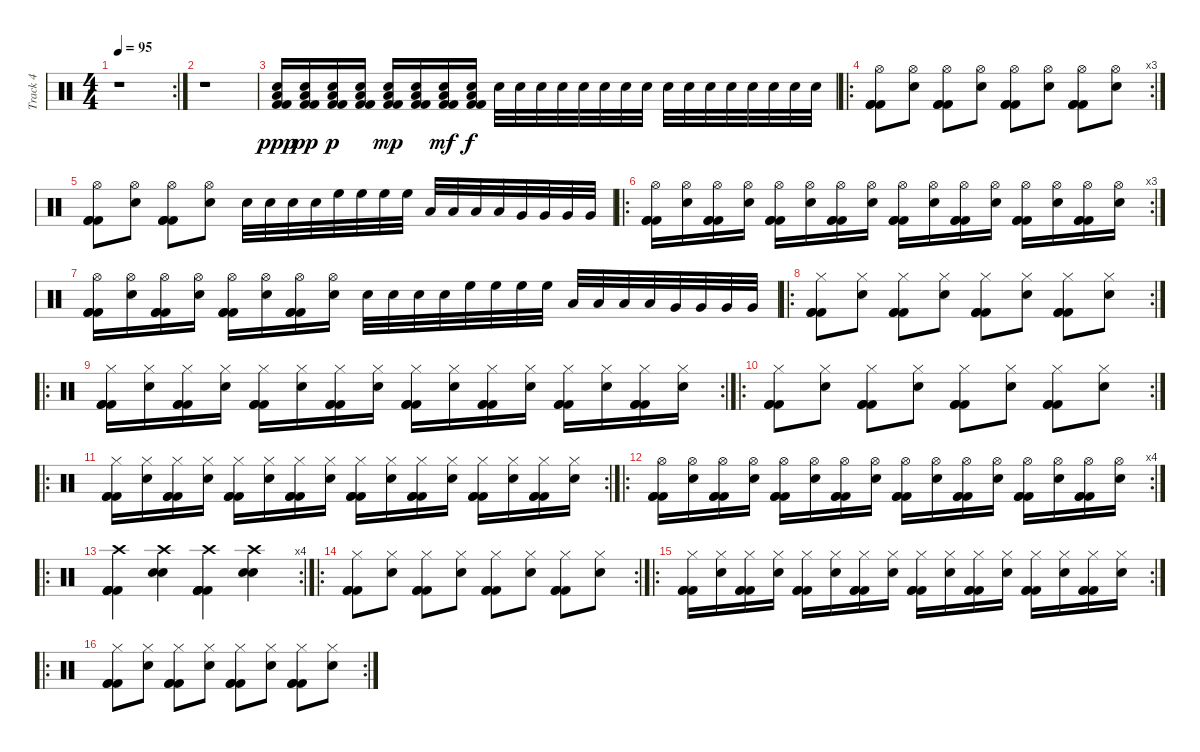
\track ("Track 4" "Track 4") {instrument percussion}
\staff {score}
\articulation defaults
\rc 2
\ts (4 4)
\tempo 95
\clef neutral
\ks c
r.1{dy ppp} |
r.1 |
("Low Floor Tom (hit)" "Snare (hit) 2" "Kick (hit) 2" "Kick (hit) 2").16 ("Low Floor Tom (hit)" "Snare (hit) 2" "Kick (hit) 2" "Kick (hit) 2").16{dy pp} ("Low Floor Tom (hit)" "Snare (hit) 2" "Kick (hit) 2" "Kick (hit) 2").16{dy p} ("Low Floor Tom (hit)" "Snare (hit) 2" "Kick (hit) 2" "Kick (hit) 2").16 ("Low Floor Tom (hit)" "Snare (hit) 2" "Kick (hit) 2" "Kick (hit) 2").16{dy mp} ("Low Floor Tom (hit)" "Snare (hit) 2" "Kick (hit) 2" "Kick (hit) 2").16 ("Low Floor Tom (hit)" "Snare (hit) 2" "Kick (hit) 2" "Kick (hit) 2").16{dy mf} ("Low Floor Tom (hit)" "Snare (hit) 2" "Kick (hit) 2" "Kick (hit) 2").16{dy f} "Snare (hit) 2".32 "Snare (hit) 2".32 "Snare (hit) 2".32 "Snare (hit) 2".32 "Snare (hit) 2".32 "Snare (hit) 2".32 "Snare (hit) 2".32 "Snare (hit) 2".32 "Snare (hit) 2".32 "Snare (hit) 2".32 "Snare (hit) 2".32 "Snare (hit) 2".32 "Snare (hit) 2".32 "Snare (hit) 2".32 "Snare (hit) 2".32 "Snare (hit) 2".32 |
\ro
\rc 3
("Hi-Hat (open)" "Kick (hit) 2" "Kick (hit) 2" "Kick (hit) 2").8 ("Hi-Hat (open)" "Snare (hit) 2").8 ("Hi-Hat (open)" "Kick (hit) 2" "Kick (hit) 2" "Kick (hit) 2").8 ("Hi-Hat (open)" "Snare (hit) 2").8 ("Hi-Hat (open)" "Kick (hit) 2" "Kick (hit) 2" "Kick (hit) 2").8 ("Hi-Hat (open)" "Snare (hit) 2").8 ("Hi-Hat (open)" "Kick (hit) 2" "Kick (hit) 2" "Kick (hit) 2").8 ("Hi-Hat (open)" "Snare (hit) 2").8 |
("Hi-Hat (open)" "Kick (hit) 2" "Kick (hit) 2" "Kick (hit) 2").8 ("Hi-Hat (open)" "Snare (hit) 2").8 ("Hi-Hat (open)" "Kick (hit) 2" "Kick (hit) 2" "Kick (hit) 2").8 ("Hi-Hat (open)" "Snare (hit) 2").8 "Snare (hit) 2".32 "Snare (hit) 2".32 "Snare (hit) 2".32 "Snare (hit) 2".32 "High Floor Tom (hit)".32 "High Floor Tom (hit)".32 "High Floor Tom (hit)".32 "High Floor Tom (hit)".32 "Low Tom (hit)".32 "Low Tom (hit)".32 "Low Tom (hit)".32 "Low Tom (hit)".32 "Very Low Tom (hit)".32 "Very Low Tom (hit)".32 "Very Low Tom (hit)".32 "Very Low Tom (hit)".32 |
\ro
\rc 3
("Hi-Hat (open)" "Kick (hit) 2" "Kick (hit) 2" "Kick (hit) 2").16 ("Hi-Hat (open)" "Snare (hit) 2").16 ("Hi-Hat (open)" "Kick (hit) 2" "Kick (hit) 2" "Kick (hit) 2").16 ("Hi-Hat (open)" "Snare (hit) 2").16 ("Hi-Hat (open)" "Kick (hit) 2" "Kick (hit) 2" "Kick (hit) 2").16 ("Hi-Hat (open)" "Snare (hit) 2").16 ("Hi-Hat (open)" "Kick (hit) 2" "Kick (hit) 2" "Kick (hit) 2").16 ("Hi-Hat (open)" "Snare (hit) 2").16 ("Hi-Hat (open)" "Kick (hit) 2" "Kick (hit) 2" "Kick (hit) 2").16 ("Hi-Hat (open)" "Snare (hit) 2").16 ("Hi-Hat (open)" "Kick (hit) 2" "Kick (hit) 2" "Kick (hit) 2").16 ("Hi-Hat (open)" "Snare (hit) 2").16 ("Hi-Hat (open)" "Kick (hit) 2" "Kick (hit) 2" "Kick (hit) 2").16 ("Hi-Hat (open)" "Snare (hit) 2").16 ("Hi-Hat (open)" "Kick (hit) 2" "Kick (hit) 2" "Kick (hit) 2").16 ("Hi-Hat (open)" "Snare (hit) 2").16 |
("Hi-Hat (open)" "Kick (hit) 2" "Kick (hit) 2" "Kick (hit) 2").16 ("Hi-Hat (open)" "Snare (hit) 2").16 ("Hi-Hat (open)" "Kick (hit) 2" "Kick (hit) 2" "Kick (hit) 2").16 ("Hi-Hat (open)" "Snare (hit) 2").16 ("Hi-Hat (open)" "Kick (hit) 2" "Kick (hit) 2" "Kick (hit) 2").16 ("Hi-Hat (open)" "Snare (hit) 2").16 ("Hi-Hat (open)" "Kick (hit) 2" "Kick (hit) 2" "Kick (hit) 2").16 ("Hi-Hat (open)" "Snare (hit) 2").16 "Snare (hit) 2".32 "Snare (hit) 2".32 "Snare (hit) 2".32 "Snare (hit) 2".32 "High Floor Tom (hit)".32 "High Floor Tom (hit)".32 "High Floor Tom (hit)".32 "High Floor Tom (hit)".32 "Low Tom (hit)".32 "Low Tom (hit)".32 "Low Tom (hit)".32 "Low Tom (hit)".32 "Very Low Tom (hit)".32 "Very Low Tom (hit)".32 "Very Low Tom (hit)".32 "Very Low Tom (hit)".32 |
\ro
\rc 2
("Hi-Hat (closed)" "Kick (hit) 2" "Kick (hit) 2" "Kick (hit) 2").8 ("Hi-Hat (closed)" "Snare (hit) 2").8 ("Hi-Hat (closed)" "Kick (hit) 2" "Kick (hit) 2" "Kick (hit) 2").8 ("Hi-Hat (closed)" "Snare (hit) 2").8 ("Hi-Hat (closed)" "Kick (hit) 2" "Kick (hit) 2" "Kick (hit) 2").8 ("Hi-Hat (closed)" "Snare (hit) 2").8 ("Hi-Hat (closed)" "Kick (hit) 2" "Kick (hit) 2" "Kick (hit) 2").8 ("Hi-Hat (closed)" "Snare (hit) 2").8 |
\ro
\rc 2
("Hi-Hat (closed)" "Kick (hit) 2" "Kick (hit) 2" "Kick (hit) 2").16 ("Hi-Hat (closed)" "Snare (hit) 2").16 ("Hi-Hat (closed)" "Kick (hit) 2" "Kick (hit) 2" "Kick (hit) 2").16 ("Hi-Hat (closed)" "Snare (hit) 2").16 ("Hi-Hat (closed)" "Kick (hit) 2" "Kick (hit) 2" "Kick (hit) 2").16 ("Hi-Hat (closed)" "Snare (hit) 2").16 ("Hi-Hat (closed)" "Kick (hit) 2" "Kick (hit) 2" "Kick (hit) 2").16 ("Hi-Hat (closed)" "Snare (hit) 2").16 ("Hi-Hat (closed)" "Kick (hit) 2" "Kick (hit) 2" "Kick (hit) 2").16 ("Hi-Hat (closed)" "Snare (hit) 2").16 ("Hi-Hat (closed)" "Kick (hit) 2" "Kick (hit) 2" "Kick (hit) 2").16 ("Hi-Hat (closed)" "Snare (hit) 2").16 ("Hi-Hat (closed)" "Kick (hit) 2" "Kick (hit) 2" "Kick (hit) 2").16 ("Hi-Hat (closed)" "Snare (hit) 2").16 ("Hi-Hat (closed)" "Kick (hit) 2" "Kick (hit) 2" "Kick (hit) 2").16 ("Hi-Hat (closed)" "Snare (hit) 2").16 |
\ro
\rc 2
("Hi-Hat (closed)" "Kick (hit) 2" "Kick (hit) 2" "Kick (hit) 2").8 ("Hi-Hat (closed)" "Snare (hit) 2").8 ("Hi-Hat (closed)" "Kick (hit) 2" "Kick (hit) 2" "Kick (hit) 2").8 ("Hi-Hat (closed)" "Snare (hit) 2").8 ("Hi-Hat (closed)" "Kick (hit) 2" "Kick (hit) 2" "Kick (hit) 2").8 ("Hi-Hat (closed)" "Snare (hit) 2").8 ("Hi-Hat (closed)" "Kick (hit) 2" "Kick (hit) 2" "Kick (hit) 2").8 ("Hi-Hat (closed)" "Snare (hit) 2").8 |
\ro
\rc 2
("Hi-Hat (closed)" "Kick (hit) 2" "Kick (hit) 2" "Kick (hit) 2").16 ("Hi-Hat (closed)" "Snare (hit) 2").16 ("Hi-Hat (closed)" "Kick (hit) 2" "Kick (hit) 2" "Kick (hit) 2").16 ("Hi-Hat (closed)" "Snare (hit) 2").16 ("Hi-Hat (closed)" "Kick (hit) 2" "Kick (hit) 2" "Kick (hit) 2").16 ("Hi-Hat (closed)" "Snare (hit) 2").16 ("Hi-Hat (closed)" "Kick (hit) 2" "Kick (hit) 2" "Kick (hit) 2").16 ("Hi-Hat (closed)" "Snare (hit) 2").16 ("Hi-Hat (closed)" "Kick (hit) 2" "Kick (hit) 2" "Kick (hit) 2").16 ("Hi-Hat (closed)" "Snare (hit) 2").16 ("Hi-Hat (closed)" "Kick (hit) 2" "Kick (hit) 2" "Kick (hit) 2").16 ("Hi-Hat (closed)" "Snare (hit) 2").16 ("Hi-Hat (closed)" "Kick (hit) 2" "Kick (hit) 2" "Kick (hit) 2").16 ("Hi-Hat (closed)" "Snare (hit) 2").16 ("Hi-Hat (closed)" "Kick (hit) 2" "Kick (hit) 2" "Kick (hit) 2").16 ("Hi-Hat (closed)" "Snare (hit) 2").16 |
\ro
\rc 4
("Hi-Hat (open)" "Kick (hit) 2" "Kick (hit) 2" "Kick (hit) 2").16 ("Hi-Hat (open)" "Snare (hit) 2").16 ("Hi-Hat (open)" "Kick (hit) 2" "Kick (hit) 2" "Kick (hit) 2").16 ("Hi-Hat (open)" "Snare (hit) 2").16 ("Hi-Hat (open)" "Kick (hit) 2" "Kick (hit) 2" "Kick (hit) 2").16 ("Hi-Hat (open)" "Snare (hit) 2").16 ("Hi-Hat (open)" "Kick (hit) 2" "Kick (hit) 2" "Kick (hit) 2").16 ("Hi-Hat (open)" "Snare (hit) 2").16 ("Hi-Hat (open)" "Kick (hit) 2" "Kick (hit) 2" "Kick (hit) 2").16 ("Hi-Hat (open)" "Snare (hit) 2").16 ("Hi-Hat (open)" "Kick (hit) 2" "Kick (hit) 2" "Kick (hit) 2").16 ("Hi-Hat (open)" "Snare (hit) 2").16 ("Hi-Hat (open)" "Kick (hit) 2" "Kick (hit) 2" "Kick (hit) 2").16 ("Hi-Hat (open)" "Snare (hit) 2").16 ("Hi-Hat (open)" "Kick (hit) 2" "Kick (hit) 2" "Kick (hit) 2").16 ("Hi-Hat (open)" "Snare (hit) 2").16 |
\ro
\rc 4
("Crash high (hit)" "Kick (hit) 2" "Kick (hit) 2" "Kick (hit) 2" "Kick (hit) 2").4 ("Crash high (hit)" "Snare (hit) 2" "Snare (hit) 2").4 ("Crash high (hit)" "Kick (hit) 2" "Kick (hit) 2" "Kick (hit) 2" "Kick (hit) 2").4 ("Crash high (hit)" "Snare (hit) 2" "Snare (hit) 2").4 |
\ro
\rc 2
("Hi-Hat (closed)" "Kick (hit) 2" "Kick (hit) 2" "Kick (hit) 2").8 ("Hi-Hat (closed)" "Snare (hit) 2").8 ("Hi-Hat (closed)" "Kick (hit) 2" "Kick (hit) 2" "Kick (hit) 2").8 ("Hi-Hat (closed)" "Snare (hit) 2").8 ("Hi-Hat (closed)" "Kick (hit) 2" "Kick (hit) 2" "Kick (hit) 2").8 ("Hi-Hat (closed)" "Snare (hit) 2").8 ("Hi-Hat (closed)" "Kick (hit) 2" "Kick (hit) 2" "Kick (hit) 2").8 ("Hi-Hat (closed)" "Snare (hit) 2").8 |
\ro
\rc 2
("Hi-Hat (closed)" "Kick (hit) 2" "Kick (hit) 2" "Kick (hit) 2").16 ("Hi-Hat (closed)" "Snare (hit) 2").16 ("Hi-Hat (closed)" "Kick (hit) 2" "Kick (hit) 2" "Kick (hit) 2").16 ("Hi-Hat (closed)" "Snare (hit) 2").16 ("Hi-Hat (closed)" "Kick (hit) 2" "Kick (hit) 2" "Kick (hit) 2").16 ("Hi-Hat (closed)" "Snare (hit) 2").16 ("Hi-Hat (closed)" "Kick (hit) 2" "Kick (hit) 2" "Kick (hit) 2").16 ("Hi-Hat (closed)" "Snare (hit) 2").16 ("Hi-Hat (closed)" "Kick (hit) 2" "Kick (hit) 2" "Kick (hit) 2").16 ("Hi-Hat (closed)" "Snare (hit) 2").16 ("Hi-Hat (closed)" "Kick (hit) 2" "Kick (hit) 2" "Kick (hit) 2").16 ("Hi-Hat (closed)" "Snare (hit) 2").16 ("Hi-Hat (closed)" "Kick (hit) 2" "Kick (hit) 2" "Kick (hit) 2").16 ("Hi-Hat (closed)" "Snare (hit) 2").16 ("Hi-Hat (closed)" "Kick (hit) 2" "Kick (hit) 2" "Kick (hit) 2").16 ("Hi-Hat (closed)" "Snare (hit) 2").16 |
\ro
\rc 2
("Hi-Hat (closed)" "Kick (hit) 2" "Kick (hit) 2" "Kick (hit) 2").8 ("Hi-Hat (closed)" "Snare (hit) 2").8 ("Hi-Hat (closed)" "Kick (hit) 2" "Kick (hit) 2" "Kick (hit) 2").8 ("Hi-Hat (closed)" "Snare (hit) 2").8 ("Hi-Hat (closed)" "Kick (hit) 2" "Kick (hit) 2" "Kick (hit) 2").8 ("Hi-Hat (closed)" "Snare (hit) 2").8 ("Hi-Hat (closed)" "Kick (hit) 2" "Kick (hit) 2" "Kick (hit) 2").8 ("Hi-Hat (closed)" "Snare (hit) 2").8
